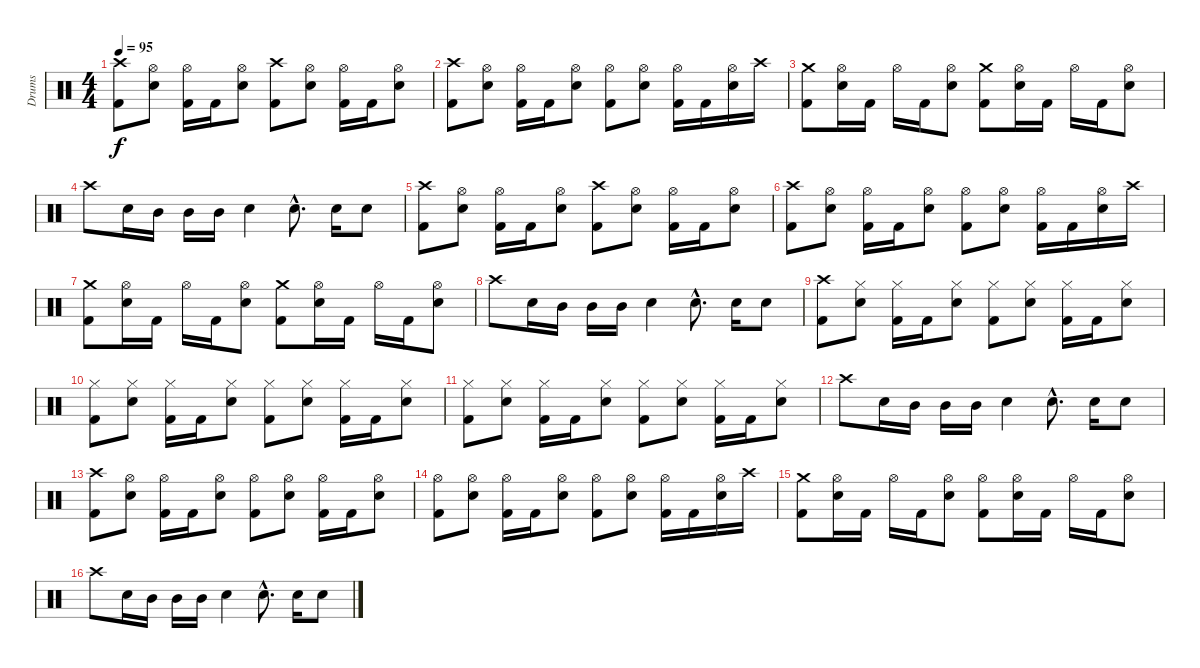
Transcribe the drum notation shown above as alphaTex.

\track ("Drums" "Drums") {instrument percussion}
\staff {score}
\articulation defaults
\ts (4 4)
\tempo 95
\clef neutral
\ks c
("Crash high (hit)" "Kick (hit) 2").8{dy f} ("Hi-Hat (open)" "Electric Snare (hit)").8 ("Hi-Hat (open)" "Kick (hit) 2").16 "Kick (hit) 2".16 ("Hi-Hat (open)" "Electric Snare (hit)").8 ("Crash high (hit)" "Kick (hit) 2").8 ("Hi-Hat (open)" "Electric Snare (hit)").8 ("Hi-Hat (open)" "Kick (hit) 2").16 "Kick (hit) 2".16 ("Hi-Hat (open)" "Electric Snare (hit)").8 |
("Crash high (hit)" "Kick (hit) 2").8 ("Hi-Hat (open)" "Electric Snare (hit)").8 ("Hi-Hat (open)" "Kick (hit) 2").16 "Kick (hit) 2".16 ("Hi-Hat (open)" "Electric Snare (hit)").8 ("Hi-Hat (open)" "Kick (hit) 2").8 ("Hi-Hat (open)" "Electric Snare (hit)").8 ("Hi-Hat (open)" "Kick (hit) 2").16 "Kick (hit) 2".16 ("Hi-Hat (open)" "Electric Snare (hit)").16 "Crash high (hit)".16 |
("Crash medium (hit)" "Kick (hit) 2").8 ("Hi-Hat (open)" "Electric Snare (hit)").16 "Kick (hit) 2".16 "Hi-Hat (open)".16 "Kick (hit) 2".16 ("Hi-Hat (open)" "Electric Snare (hit)").8 ("Crash medium (hit)" "Kick (hit) 2").8 ("Hi-Hat (open)" "Electric Snare (hit)").16 "Kick (hit) 2".16 "Hi-Hat (open)".16 "Kick (hit) 2".16 ("Hi-Hat (open)" "Electric Snare (hit)").8 |
"Crash high (hit)".8 "Electric Snare (hit)".16 "Mid Tom (hit)".16 "Mid Tom (hit)".16 "Mid Tom (hit)".16 "Electric Snare (hit)".4 "Electric Snare (hit)"{hac}.8{d} "Electric Snare (hit)".16 "Electric Snare (hit)".8 |
("Crash high (hit)" "Kick (hit) 2").8 ("Hi-Hat (open)" "Electric Snare (hit)").8 ("Hi-Hat (open)" "Kick (hit) 2").16 "Kick (hit) 2".16 ("Hi-Hat (open)" "Electric Snare (hit)").8 ("Crash high (hit)" "Kick (hit) 2").8 ("Hi-Hat (open)" "Electric Snare (hit)").8 ("Hi-Hat (open)" "Kick (hit) 2").16 "Kick (hit) 2".16 ("Hi-Hat (open)" "Electric Snare (hit)").8 |
("Crash high (hit)" "Kick (hit) 2").8 ("Hi-Hat (open)" "Electric Snare (hit)").8 ("Hi-Hat (open)" "Kick (hit) 2").16 "Kick (hit) 2".16 ("Hi-Hat (open)" "Electric Snare (hit)").8 ("Hi-Hat (open)" "Kick (hit) 2").8 ("Hi-Hat (open)" "Electric Snare (hit)").8 ("Hi-Hat (open)" "Kick (hit) 2").16 "Kick (hit) 2".16 ("Hi-Hat (open)" "Electric Snare (hit)").16 "Crash high (hit)".16 |
("Crash medium (hit)" "Kick (hit) 2").8 ("Hi-Hat (open)" "Electric Snare (hit)").16 "Kick (hit) 2".16 "Hi-Hat (open)".16 "Kick (hit) 2".16 ("Hi-Hat (open)" "Electric Snare (hit)").8 ("Crash medium (hit)" "Kick (hit) 2").8 ("Hi-Hat (open)" "Electric Snare (hit)").16 "Kick (hit) 2".16 "Hi-Hat (open)".16 "Kick (hit) 2".16 ("Hi-Hat (open)" "Electric Snare (hit)").8 |
"Crash high (hit)".8 "Electric Snare (hit)".16 "Mid Tom (hit)".16 "Mid Tom (hit)".16 "Mid Tom (hit)".16 "Electric Snare (hit)".4 "Electric Snare (hit)"{hac}.8{d} "Electric Snare (hit)".16 "Electric Snare (hit)".8 |
("Crash high (hit)" "Kick (hit) 2").8 ("Hi-Hat (closed)" "Electric Snare (hit)").8 ("Hi-Hat (closed)" "Kick (hit) 2").16 "Kick (hit) 2".16 ("Hi-Hat (closed)" "Electric Snare (hit)").8 ("Hi-Hat (closed)" "Kick (hit) 2").8 ("Hi-Hat (closed)" "Electric Snare (hit)").8 ("Hi-Hat (closed)" "Kick (hit) 2").16 "Kick (hit) 2".16 ("Hi-Hat (closed)" "Electric Snare (hit)").8 |
("Hi-Hat (closed)" "Kick (hit) 2").8 ("Hi-Hat (closed)" "Electric Snare (hit)").8 ("Hi-Hat (closed)" "Kick (hit) 2").16 "Kick (hit) 2".16 ("Hi-Hat (closed)" "Electric Snare (hit)").8 ("Hi-Hat (closed)" "Kick (hit) 2").8 ("Hi-Hat (closed)" "Electric Snare (hit)").8 ("Hi-Hat (closed)" "Kick (hit) 2").16 "Kick (hit) 2".16 ("Hi-Hat (closed)" "Electric Snare (hit)").8 |
("Hi-Hat (closed)" "Kick (hit) 2").8 ("Hi-Hat (closed)" "Electric Snare (hit)").8 ("Hi-Hat (closed)" "Kick (hit) 2").16 "Kick (hit) 2".16 ("Hi-Hat (closed)" "Electric Snare (hit)").8 ("Hi-Hat (closed)" "Kick (hit) 2").8 ("Hi-Hat (closed)" "Electric Snare (hit)").8 ("Hi-Hat (closed)" "Kick (hit) 2").16 "Kick (hit) 2".16 ("Hi-Hat (closed)" "Electric Snare (hit)").8 |
"Crash high (hit)".8 "Electric Snare (hit)".16 "Mid Tom (hit)".16 "Mid Tom (hit)".16 "Mid Tom (hit)".16 "Electric Snare (hit)".4 "Electric Snare (hit)"{hac}.8{d} "Electric Snare (hit)".16 "Electric Snare (hit)".8 |
("Crash high (hit)" "Kick (hit) 2").8 ("Hi-Hat (open)" "Electric Snare (hit)").8 ("Hi-Hat (open)" "Kick (hit) 2").16 "Kick (hit) 2".16 ("Hi-Hat (open)" "Electric Snare (hit)").8 ("Hi-Hat (open)" "Kick (hit) 2").8 ("Hi-Hat (open)" "Electric Snare (hit)").8 ("Hi-Hat (open)" "Kick (hit) 2").16 "Kick (hit) 2".16 ("Hi-Hat (open)" "Electric Snare (hit)").8 |
("Hi-Hat (open)" "Kick (hit) 2").8 ("Hi-Hat (open)" "Electric Snare (hit)").8 ("Hi-Hat (open)" "Kick (hit) 2").16 "Kick (hit) 2".16 ("Hi-Hat (open)" "Electric Snare (hit)").8 ("Hi-Hat (open)" "Kick (hit) 2").8 ("Hi-Hat (open)" "Electric Snare (hit)").8 ("Hi-Hat (open)" "Kick (hit) 2").16 "Kick (hit) 2".16 ("Hi-Hat (open)" "Electric Snare (hit)").16 "Crash high (hit)".16 |
("Crash medium (hit)" "Kick (hit) 2").8 ("Hi-Hat (open)" "Electric Snare (hit)").16 "Kick (hit) 2".16 "Hi-Hat (open)".16 "Kick (hit) 2".16 ("Hi-Hat (open)" "Electric Snare (hit)").8 ("Hi-Hat (open)" "Kick (hit) 2").8 ("Hi-Hat (open)" "Electric Snare (hit)").16 "Kick (hit) 2".16 "Hi-Hat (open)".16 "Kick (hit) 2".16 ("Hi-Hat (open)" "Electric Snare (hit)").8 |
"Crash high (hit)".8 "Electric Snare (hit)".16 "Mid Tom (hit)".16 "Mid Tom (hit)".16 "Mid Tom (hit)".16 "Electric Snare (hit)".4 "Electric Snare (hit)"{hac}.8{d} "Electric Snare (hit)".16 "Electric Snare (hit)".8
